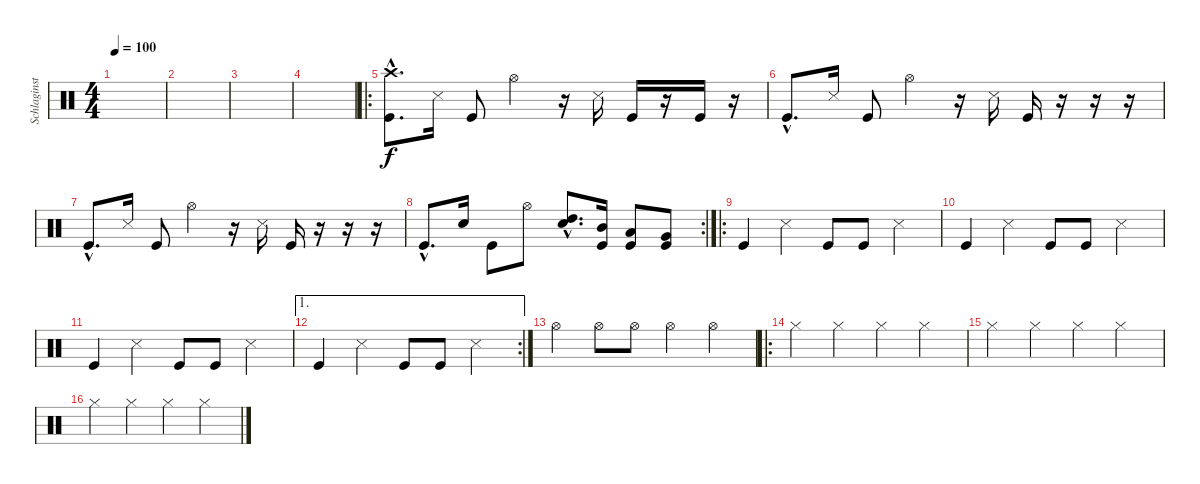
\track ("Schlaginstrumente - Auswahl" "Schlaginst") {instrument percussion}
\staff {score}
\articulation defaults
\ts (4 4)
\tempo 100
\clef neutral
\ks c
|
|
|
|
\ro
("Crash high (hit)"{hac} "Kick (hit)"{hac}).8{d} "Snare (side stick) 3".16 "Kick (hit)".8 "Hi-Hat (open)".4 r.16 "Snare (side stick) 3".16 "Kick (hit)".16 r.16 "Kick (hit)".16 r.16 |
"Kick (hit)"{hac}.8{d} "Snare (side stick) 3".16 "Kick (hit)".8 "Hi-Hat (open)".4 r.16 "Snare (side stick) 3".16 "Kick (hit)".16 r.16 r.16 r.16 |
"Kick (hit)"{hac}.8{d} "Snare (side stick) 3".16 "Kick (hit)".8 "Hi-Hat (open)".4 r.16 "Snare (side stick) 3".16 "Kick (hit)".16 r.16 r.16 r.16 |
\rc 2 "Kick (hit)"{hac}.8{d} "Electric Snare (hit)".16 "Kick (hit)".8 "Hi-Hat (open)".8
("High Tom (hit)"{hac} "Electric Snare (hit)"{hac}).8{d} ("Mid Tom (hit)" "Kick (hit)").16 ("Low Tom (hit)" "Kick (hit)").8 ("Very Low Tom (hit)" "Kick (hit)").8 |
\ro "Kick (hit)".4 "Snare (side stick) 3".4 "Kick (hit)".8 "Kick (hit)".8 "Snare (side stick) 3".4
|
"Kick (hit)".4 "Snare (side stick) 3".4 "Kick (hit)".8 "Kick (hit)".8 "Snare (side stick) 3".4 |
"Kick (hit)".4 "Snare (side stick) 3".4 "Kick (hit)".8 "Kick (hit)".8 "Snare (side stick) 3".4 |
\ae 1
\rc 2 "Kick (hit)".4 "Snare (side stick) 3".4 "Kick (hit)".8 "Kick (hit)".8 "Snare (side stick) 3".4
|
"Hi-Hat (open)".4 "Hi-Hat (open)".8 "Hi-Hat (open)".8 "Hi-Hat (open)".4 "Hi-Hat (open)".4 |
\ro "Hi-Hat (closed)".4 "Hi-Hat (closed)".4 "Hi-Hat (closed)".4 "Hi-Hat (closed)".4
|
"Hi-Hat (closed)".4 "Hi-Hat (closed)".4 "Hi-Hat (closed)".4 "Hi-Hat (closed)".4 |
"Hi-Hat (closed)".4 "Hi-Hat (closed)".4 "Hi-Hat (closed)".4 "Hi-Hat (closed)".4
